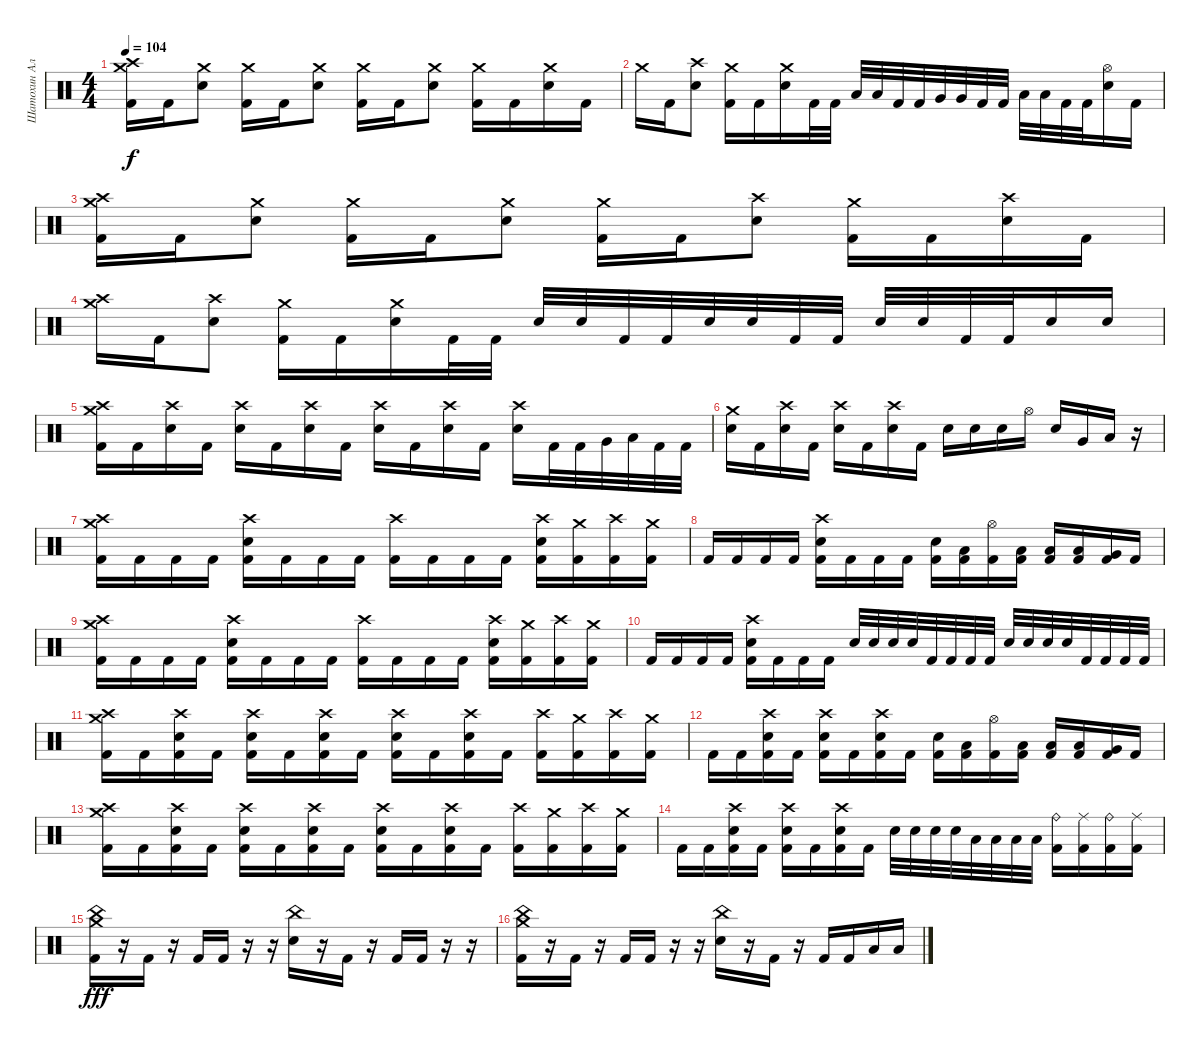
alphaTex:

\track ("Шатохин Алексей" "Шатохин Ал") {instrument percussion}
\staff {score}
\articulation defaults
\ts (4 4)
\tempo 104
\clef neutral
\ks c
("Crash high (hit)" "Crash medium (hit)" "Kick (hit) 2").16{dy f} "Kick (hit) 2".16 ("Crash medium (hit)" "Electric Snare (hit)").8 ("Crash medium (hit)" "Kick (hit) 2").16 "Kick (hit) 2".16 ("Crash medium (hit)" "Electric Snare (hit)").8 ("Crash medium (hit)" "Kick (hit) 2").16 "Kick (hit) 2".16 ("Crash medium (hit)" "Electric Snare (hit)").8 ("Crash medium (hit)" "Kick (hit) 2").16 "Kick (hit) 2".16 ("Crash medium (hit)" "Electric Snare (hit)").16 "Kick (hit) 2".16 |
"Crash medium (hit)".16 "Kick (hit) 2".16 ("Crash high (hit)" "Electric Snare (hit)").8 ("Crash medium (hit)" "Kick (hit) 2").16 "Kick (hit) 2".16 ("Crash medium (hit)" "Electric Snare (hit)").16 "Kick (hit) 2".32 "Kick (hit) 2".32 "Low Tom (hit)".32 "Low Tom (hit)".32 "Kick (hit) 2".32 "Kick (hit) 2".32 "Very Low Tom (hit)".32 "Very Low Tom (hit)".32 "Kick (hit) 2".32 "Kick (hit) 2".32 "Low Floor Tom (hit)".32 "Low Floor Tom (hit)".32 "Kick (hit) 2".32 "Kick (hit) 2".32 ("Hi-Hat (open)" "Electric Snare (hit)").16 "Kick (hit) 2".16 |
("Crash high (hit)" "Crash medium (hit)" "Kick (hit) 2").16 "Kick (hit) 2".16 ("Crash medium (hit)" "Electric Snare (hit)").8 ("Crash medium (hit)" "Kick (hit) 2").16 "Kick (hit) 2".16 ("Crash medium (hit)" "Electric Snare (hit)").8 ("Crash medium (hit)" "Kick (hit) 2").16 "Kick (hit) 2".16 ("Crash high (hit)" "Electric Snare (hit)").8 ("Crash medium (hit)" "Kick (hit) 2").16 "Kick (hit) 2".16 ("Crash high (hit)" "Electric Snare (hit)").16 "Kick (hit) 2".16 |
("Crash high (hit)" "Crash medium (hit)").16 "Kick (hit) 2".16 ("Crash high (hit)" "Electric Snare (hit)").8 ("Crash medium (hit)" "Kick (hit) 2").16 "Kick (hit) 2".16 ("Crash medium (hit)" "Electric Snare (hit)").16 "Kick (hit) 2".32 "Kick (hit) 2".32 "Electric Snare (hit)".32 "Electric Snare (hit)".32 "Kick (hit) 2".32 "Kick (hit) 2".32 "Electric Snare (hit)".32 "Electric Snare (hit)".32 "Kick (hit) 2".32 "Kick (hit) 2".32 "Electric Snare (hit)".32 "Electric Snare (hit)".32 "Kick (hit) 2".32 "Kick (hit) 2".32 "Electric Snare (hit)".16 "Electric Snare (hit)".16 |
("Crash medium (hit)" "Crash high (hit)" "Kick (hit) 2").16 "Kick (hit) 2".16 ("Crash high (hit)" "Electric Snare (hit)").16 "Kick (hit) 2".16 ("Crash high (hit)" "Electric Snare (hit)").16 "Kick (hit) 2".16 ("Crash high (hit)" "Electric Snare (hit)").16 "Kick (hit) 2".16 ("Crash high (hit)" "Electric Snare (hit)").16 "Kick (hit) 2".16 ("Crash high (hit)" "Electric Snare (hit)").16 "Kick (hit) 2".16 ("Crash high (hit)" "Electric Snare (hit)").16 "Kick (hit) 2".32 "Kick (hit) 2".32 "Very Low Tom (hit)".32 "Low Tom (hit)".32 "Kick (hit) 2".32 "Kick (hit) 2".32 |
("Crash medium (hit)" "Electric Snare (hit)").16 "Kick (hit) 2".16 ("Crash high (hit)" "Electric Snare (hit)").16 "Kick (hit) 2".16 ("Crash high (hit)" "Electric Snare (hit)").16 "Kick (hit) 2".16 ("Crash high (hit)" "Electric Snare (hit)").16 "Kick (hit) 2".16 "Electric Snare (hit)".16 "Electric Snare (hit)".16 "Electric Snare (hit)".16 "Hi-Hat (open)".16 "Electric Snare (hit)".16 "Very Low Tom (hit)".16 "Low Floor Tom (hit)".16 r.16 |
("Crash high (hit)" "Crash medium (hit)" "Kick (hit) 2").16 "Kick (hit) 2".16 "Kick (hit) 2".16 "Kick (hit) 2".16 ("Crash high (hit)" "Electric Snare (hit)" "Kick (hit) 2").16 "Kick (hit) 2".16 "Kick (hit) 2".16 "Kick (hit) 2".16 ("Crash high (hit)" "Kick (hit) 2").16 "Kick (hit) 2".16 "Kick (hit) 2".16 "Kick (hit) 2".16 ("Crash high (hit)" "Electric Snare (hit)" "Kick (hit) 2").16 ("Crash medium (hit)" "Kick (hit) 2").16 ("Crash high (hit)" "Kick (hit) 2").16 ("Crash medium (hit)" "Kick (hit) 2").16 |
"Kick (hit) 2".16 "Kick (hit) 2".16 "Kick (hit) 2".16 "Kick (hit) 2".16 ("Crash high (hit)" "Electric Snare (hit)" "Kick (hit) 2").16 "Kick (hit) 2".16 "Kick (hit) 2".16 "Kick (hit) 2".16 ("Electric Snare (hit)" "Kick (hit) 2").16 ("Low Floor Tom (hit)" "Kick (hit) 2").16 ("Hi-Hat (open)" "Kick (hit) 2").16 ("Low Floor Tom (hit)" "Kick (hit) 2").16 ("Low Tom (hit)" "Kick (hit) 2").16 ("Low Floor Tom (hit)" "Kick (hit) 2").16 ("Very Low Tom (hit)" "Kick (hit) 2").16 "Kick (hit) 2".16 |
("Crash high (hit)" "Crash medium (hit)" "Kick (hit) 2").16 "Kick (hit) 2".16 "Kick (hit) 2".16 "Kick (hit) 2".16 ("Crash high (hit)" "Electric Snare (hit)" "Kick (hit) 2").16 "Kick (hit) 2".16 "Kick (hit) 2".16 "Kick (hit) 2".16 ("Crash high (hit)" "Kick (hit) 2").16 "Kick (hit) 2".16 "Kick (hit) 2".16 "Kick (hit) 2".16 ("Crash high (hit)" "Electric Snare (hit)" "Kick (hit) 2").16 ("Crash medium (hit)" "Kick (hit) 2").16 ("Crash high (hit)" "Kick (hit) 2").16 ("Crash medium (hit)" "Kick (hit) 2").16 |
"Kick (hit) 2".16 "Kick (hit) 2".16 "Kick (hit) 2".16 "Kick (hit) 2".16 ("Crash high (hit)" "Electric Snare (hit)" "Kick (hit) 2").16 "Kick (hit) 2".16 "Kick (hit) 2".16 "Kick (hit) 2".16 "Electric Snare (hit)".32 "Electric Snare (hit)".32 "Electric Snare (hit)".32 "Electric Snare (hit)".32 "Kick (hit) 2".32 "Kick (hit) 2".32 "Kick (hit) 2".32 "Kick (hit) 2".32 "Electric Snare (hit)".32 "Electric Snare (hit)".32 "Electric Snare (hit)".32 "Electric Snare (hit)".32 "Kick (hit) 2".32 "Kick (hit) 2".32 "Kick (hit) 2".32 "Kick (hit) 2".32 |
("Crash high (hit)" "Crash medium (hit)" "Kick (hit) 2").16 "Kick (hit) 2".16 ("Crash high (hit)" "Electric Snare (hit)" "Kick (hit) 2").16 "Kick (hit) 2".16 ("Crash high (hit)" "Electric Snare (hit)" "Kick (hit) 2").16 "Kick (hit) 2".16 ("Crash high (hit)" "Electric Snare (hit)" "Kick (hit) 2").16 "Kick (hit) 2".16 ("Crash high (hit)" "Electric Snare (hit)" "Kick (hit) 2").16 "Kick (hit) 2".16 ("Crash high (hit)" "Electric Snare (hit)" "Kick (hit) 2").16 "Kick (hit) 2".16 ("Crash high (hit)" "Kick (hit) 2").16 ("Crash medium (hit)" "Kick (hit) 2").16 ("Crash high (hit)" "Kick (hit) 2").16 ("Crash medium (hit)" "Kick (hit) 2").16 |
"Kick (hit) 2".16 "Kick (hit) 2".16 ("Crash high (hit)" "Electric Snare (hit)" "Kick (hit) 2").16 "Kick (hit) 2".16 ("Crash high (hit)" "Electric Snare (hit)" "Kick (hit) 2").16 "Kick (hit) 2".16 ("Crash high (hit)" "Electric Snare (hit)" "Kick (hit) 2").16 "Kick (hit) 2".16 ("Electric Snare (hit)" "Kick (hit) 2").16 ("Low Floor Tom (hit)" "Kick (hit) 2").16 ("Hi-Hat (open)" "Kick (hit) 2").16 ("Low Floor Tom (hit)" "Kick (hit) 2").16 ("Low Tom (hit)" "Kick (hit) 2").16 ("Low Floor Tom (hit)" "Kick (hit) 2").16 ("Very Low Tom (hit)" "Kick (hit) 2").16 "Kick (hit) 2".16 |
("Crash high (hit)" "Crash medium (hit)" "Kick (hit) 2").16 "Kick (hit) 2".16 ("Crash high (hit)" "Electric Snare (hit)" "Kick (hit) 2").16 "Kick (hit) 2".16 ("Crash high (hit)" "Electric Snare (hit)" "Kick (hit) 2").16 "Kick (hit) 2".16 ("Crash high (hit)" "Electric Snare (hit)" "Kick (hit) 2").16 "Kick (hit) 2".16 ("Crash high (hit)" "Electric Snare (hit)" "Kick (hit) 2").16 "Kick (hit) 2".16 ("Crash high (hit)" "Electric Snare (hit)" "Kick (hit) 2").16 "Kick (hit) 2".16 ("Crash high (hit)" "Kick (hit) 2").16 ("Crash medium (hit)" "Kick (hit) 2").16 ("Crash high (hit)" "Kick (hit) 2").16 ("Crash medium (hit)" "Kick (hit) 2").16 |
"Kick (hit) 2".16 "Kick (hit) 2".16 ("Crash high (hit)" "Electric Snare (hit)" "Kick (hit) 2").16 "Kick (hit) 2".16 ("Crash high (hit)" "Electric Snare (hit)" "Kick (hit) 2").16 "Kick (hit) 2".16 ("Crash high (hit)" "Electric Snare (hit)" "Kick (hit) 2").16 "Kick (hit) 2".16 "Electric Snare (hit)".32 "Electric Snare (hit)".32 "Electric Snare (hit)".32 "Electric Snare (hit)".32 "Low Tom (hit)".32 "Low Tom (hit)".32 "Low Tom (hit)".32 "Low Tom (hit)".32 ("Ride (bell)" "Kick (hit) 2").16 ("Ride (middle)" "Kick (hit) 2").16 ("Ride (bell)" "Kick (hit) 2").16 ("Ride (middle)" "Kick (hit) 2").16 |
("Crash medium (hit)" "China (hit)" "Kick (hit) 2").16{dy fff} r.16 "Kick (hit) 2".16 r.16 "Kick (hit) 2".16 "Kick (hit) 2".16 r.16 r.16 ("China (hit)" "Electric Snare (hit)").16 r.16 "Kick (hit) 2".16 r.16 "Kick (hit) 2".16 "Kick (hit) 2".16 r.16 r.16 |
("Crash medium (hit)" "China (hit)" "Kick (hit) 2").16 r.16 "Kick (hit) 2".16 r.16 "Kick (hit) 2".16 "Kick (hit) 2".16 r.16 r.16 ("China (hit)" "Electric Snare (hit)").16 r.16 "Kick (hit) 2".16 r.16 "Kick (hit) 2".16 "Kick (hit) 2".16 "Low Tom (hit)".16 "Low Tom (hit)".16
